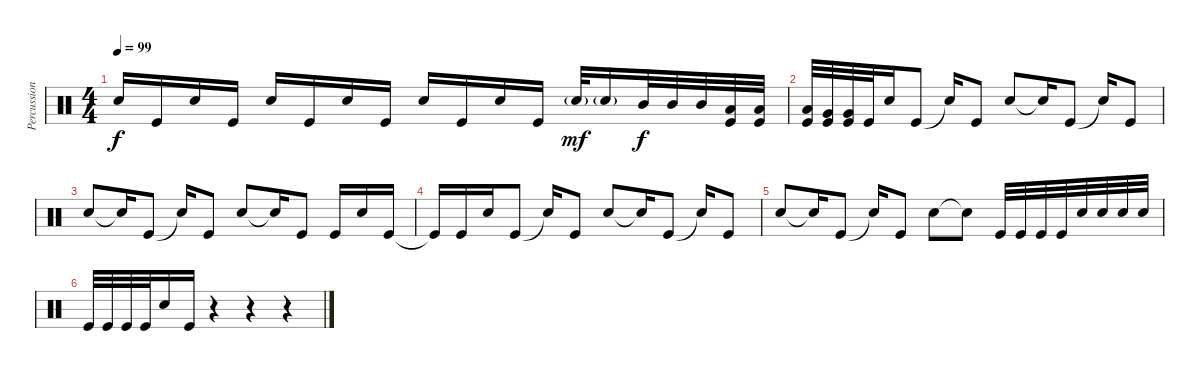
\track ("Percussion" "Percussion") {instrument percussion}
\staff {score}
\articulation defaults
\ts (4 4)
\tempo 99
\clef neutral
\ks c "Electric Snare (hit)".16{dy f} "Kick (hit)".16 "Electric Snare (hit)".16 "Kick (hit)".16 "Electric Snare (hit)".16 "Kick (hit)".16 "Electric Snare (hit)".16 "Kick (hit)".16 "Electric Snare (hit)".16 "Kick (hit)".16 "Electric Snare (hit)".16 "Kick (hit)".16 "Electric Snare (hit)"{g}.32{dy mf} "Electric Snare (hit)"{g}.16 "Mid Tom (hit)".32{dy f} "Mid Tom (hit)".32 "Mid Tom (hit)".32
("Low Tom (hit)" "Kick (hit)").32 ("Low Tom (hit)" "Kick (hit)").32 |
("Low Tom (hit)" "Kick (hit)").32 ("Very Low Tom (hit)" "Kick (hit)").32 ("Very Low Tom (hit)" "Kick (hit)").32 "Kick (hit)".32 "Electric Snare (hit)".16 "Kick (hit)".8 "Snare (hit)"{t}.16 "Kick (hit)".8 "Electric Snare (hit)".8 "Snare (hit)"{t}.16 "Kick (hit)".8 "Snare (hit)"{t}.16 "Kick (hit)".8 |
"Electric Snare (hit)".8 "Snare (hit)"{t}.16 "Kick (hit)".8 "Snare (hit)"{t}.16 "Kick (hit)".8 "Electric Snare (hit)".8 "Snare (hit)"{t}.16 "Kick (hit)".8 "Kick (hit)".16 "Electric Snare (hit)".16 "Kick (hit)".16 |
"Kick (hit)"{t}.16 "Kick (hit)".16 "Electric Snare (hit)".16 "Kick (hit)".8 "Snare (hit)"{t}.16 "Kick (hit)".8 "Electric Snare (hit)".8 "Snare (hit)"{t}.16 "Kick (hit)".8 "Snare (hit)"{t}.16 "Kick (hit)".8 |
"Electric Snare (hit)".8 "Snare (hit)"{t}.16 "Kick (hit)".8 "Snare (hit)"{t}.16 "Kick (hit)".8 "Electric Snare (hit)".8 "Snare (hit)"{t}.8 "Kick (hit)".32 "Kick (hit)".32 "Kick (hit)".32 "Kick (hit)".32 "Electric Snare (hit)".32 "Electric Snare (hit)".32 "Electric Snare (hit)".32 "Electric Snare (hit)".32 |
"Kick (hit)".32 "Kick (hit)".32 "Kick (hit)".32 "Kick (hit)".32 "Electric Snare (hit)".16 "Kick (hit)".16 r.4 r.4 r.4
